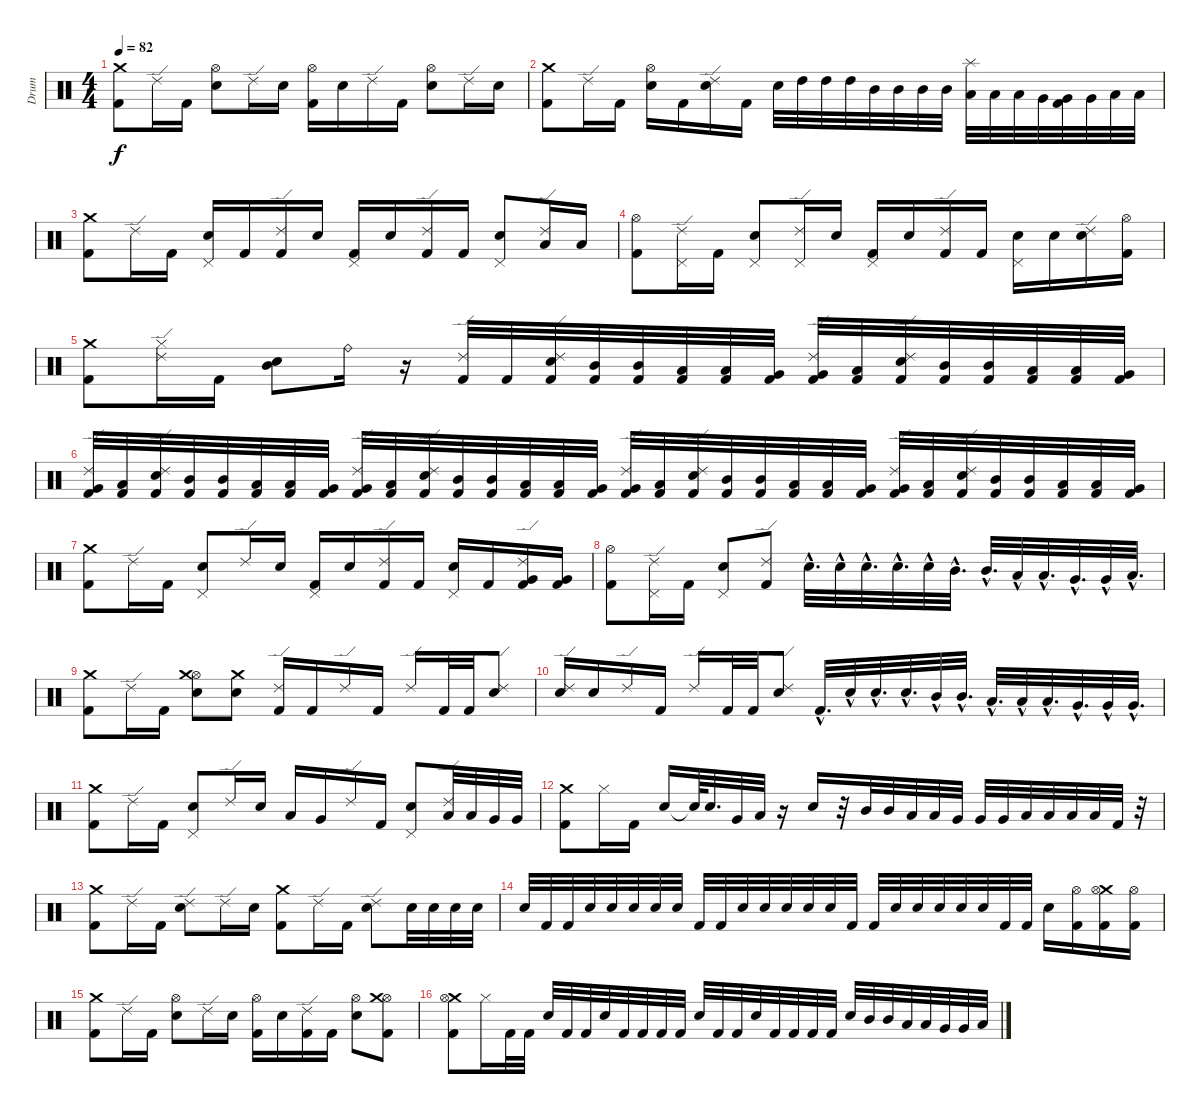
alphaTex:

\track ("Drum" "Drum") {instrument percussion}
\staff {score}
\articulation defaults
\ts (4 4)
\tempo 82
\clef neutral
\ks c
("Crash medium (hit)" "Kick (hit) 2").8{dy f} "Ride (edge) 2".16 "Kick (hit) 2".16 ("Hi-Hat (open)" "Electric Snare (hit)").8 "Ride (edge) 2".16 "Electric Snare (hit)".16 ("Hi-Hat (open)" "Kick (hit) 2").16 "Electric Snare (hit)".16 "Ride (edge) 2".16 "Kick (hit) 2".16 ("Hi-Hat (open)" "Electric Snare (hit)").8 "Ride (edge) 2".16 "Electric Snare (hit)".16 |
("Crash medium (hit)" "Kick (hit) 2").8 "Ride (edge) 2".16 "Kick (hit) 2".16 ("Hi-Hat (open)" "Electric Snare (hit)").16 "Kick (hit) 2".16 ("Ride (edge) 2" "Electric Snare (hit)").16 "Kick (hit) 2".16 "Electric Snare (hit)".32 "High Tom (hit)".32 "High Tom (hit)".32 "High Tom (hit)".32 "Mid Tom (hit)".32 "Mid Tom (hit)".32 "Mid Tom (hit)".32 "Mid Tom (hit)".32 ("Splash (hit)" "Low Tom (hit)").32 "Low Tom (hit)".32 "Low Tom (hit)".32 "Very Low Tom (hit)".32 ("Kick (hit) 2" "Very Low Tom (hit)").32 "Very Low Tom (hit)".32 "Low Floor Tom (hit)".32 "Low Floor Tom (hit)".32 |
("Crash medium (hit)" "Kick (hit) 2").8 "Ride (edge) 2".16 "Kick (hit) 2".16 ("Pedal Hi-Hat (hit)" "Electric Snare (hit)").16 "Kick (hit) 2".16 ("Ride (edge) 2" "Kick (hit) 2").16 "Electric Snare (hit)".16 ("Pedal Hi-Hat (hit)" "Kick (hit) 2").16 "Electric Snare (hit)".16 ("Ride (edge) 2" "Kick (hit) 2").16 "Kick (hit) 2".16 ("Pedal Hi-Hat (hit)" "Electric Snare (hit)").8 ("Ride (edge) 2" "Low Tom (hit)").16 "Low Tom (hit)".16 |
("Hi-Hat (open)" "Kick (hit) 2").8 ("Ride (edge) 2" "Pedal Hi-Hat (hit)").16 "Kick (hit) 2".16 ("Pedal Hi-Hat (hit)" "Electric Snare (hit)").8 ("Ride (edge) 2" "Pedal Hi-Hat (hit)").16 "Electric Snare (hit)".16 ("Pedal Hi-Hat (hit)" "Kick (hit) 2").16 "Electric Snare (hit)".16 ("Ride (edge) 2" "Kick (hit) 2").16 "Kick (hit) 2".16 ("Pedal Hi-Hat (hit)" "Electric Snare (hit)").16 "Electric Snare (hit)".16 ("Ride (edge) 2" "Electric Snare (hit)").16 ("Hi-Hat (open)" "Kick (hit) 2").16 |
("Crash medium (hit)" "Kick (hit) 2").8 ("Ride (edge) 2" "Hi-Hat (closed)").16 "Kick (hit) 2".16 ("Mid Tom (hit)" "Electric Snare (hit)").8 "Ride (bell)".16 r.16 ("Ride (edge) 2" "Kick (hit) 2").32 "Kick (hit) 2".32 ("Electric Snare (hit)" "Ride (edge) 2" "Kick (hit) 2").32 ("Mid Tom (hit)" "Kick (hit) 2").32 ("Mid Tom (hit)" "Kick (hit) 2").32 ("Low Tom (hit)" "Kick (hit) 2").32 ("Low Tom (hit)" "Kick (hit) 2").32 ("Very Low Tom (hit)" "Kick (hit) 2").32 ("Ride (edge) 2" "Very Low Tom (hit)" "Kick (hit) 2").32 ("Low Floor Tom (hit)" "Kick (hit) 2").32 ("Electric Snare (hit)" "Ride (edge) 2" "Kick (hit) 2").32 ("Mid Tom (hit)" "Kick (hit) 2").32 ("Mid Tom (hit)" "Kick (hit) 2").32 ("Low Tom (hit)" "Kick (hit) 2").32 ("Low Tom (hit)" "Kick (hit) 2").32 ("Very Low Tom (hit)" "Kick (hit) 2").32 |
("Ride (edge) 2" "Very Low Tom (hit)" "Kick (hit) 2").32 ("Low Floor Tom (hit)" "Kick (hit) 2").32 ("Electric Snare (hit)" "Ride (edge) 2" "Kick (hit) 2").32 ("Mid Tom (hit)" "Kick (hit) 2").32 ("Mid Tom (hit)" "Kick (hit) 2").32 ("Low Tom (hit)" "Kick (hit) 2").32 ("Low Tom (hit)" "Kick (hit) 2").32 ("Very Low Tom (hit)" "Kick (hit) 2").32 ("Ride (edge) 2" "Very Low Tom (hit)" "Kick (hit) 2").32 ("Low Floor Tom (hit)" "Kick (hit) 2").32 ("Electric Snare (hit)" "Ride (edge) 2" "Kick (hit) 2").32 ("Mid Tom (hit)" "Kick (hit) 2").32 ("Mid Tom (hit)" "Kick (hit) 2").32 ("Low Tom (hit)" "Kick (hit) 2").32 ("Low Tom (hit)" "Kick (hit) 2").32 ("Very Low Tom (hit)" "Kick (hit) 2").32 ("Ride (edge) 2" "Very Low Tom (hit)" "Kick (hit) 2").32 ("Low Floor Tom (hit)" "Kick (hit) 2").32 ("Electric Snare (hit)" "Ride (edge) 2" "Kick (hit) 2").32 ("Mid Tom (hit)" "Kick (hit) 2").32 ("Mid Tom (hit)" "Kick (hit) 2").32 ("Low Tom (hit)" "Kick (hit) 2").32 ("Low Tom (hit)" "Kick (hit) 2").32 ("Very Low Tom (hit)" "Kick (hit) 2").32 ("Ride (edge) 2" "Very Low Tom (hit)" "Kick (hit) 2").32 ("Low Floor Tom (hit)" "Kick (hit) 2").32 ("Electric Snare (hit)" "Ride (edge) 2" "Kick (hit) 2").32 ("Mid Tom (hit)" "Kick (hit) 2").32 ("Mid Tom (hit)" "Kick (hit) 2").32 ("Low Tom (hit)" "Kick (hit) 2").32 ("Low Tom (hit)" "Kick (hit) 2").32 ("Very Low Tom (hit)" "Kick (hit) 2").32 |
("Crash medium (hit)" "Kick (hit) 2").8 "Ride (edge) 2".16 "Kick (hit) 2".16 ("Pedal Hi-Hat (hit)" "Electric Snare (hit)").8 "Ride (edge) 2".16 "Electric Snare (hit)".16 ("Pedal Hi-Hat (hit)" "Kick (hit) 2").16 "Electric Snare (hit)".16 ("Ride (edge) 2" "Kick (hit) 2").16 "Kick (hit) 2".16 ("Pedal Hi-Hat (hit)" "Electric Snare (hit)").16 "Kick (hit) 2".16 ("Very Low Tom (hit)" "Kick (hit) 2" "Ride (edge) 2").16 ("Very Low Tom (hit)" "Kick (hit) 2").16 |
("Hi-Hat (open)" "Kick (hit) 2").8 ("Ride (edge) 2" "Pedal Hi-Hat (hit)").16 "Kick (hit) 2".16 ("Pedal Hi-Hat (hit)" "Electric Snare (hit)").8 ("Kick (hit) 2" "Ride (edge) 2").8 "Electric Snare (hit)"{hac}.32{d} "Electric Snare (hit)"{hac}.32 "Electric Snare (hit)"{hac}.32{d} "Electric Snare (hit)"{hac}.32{d} "Electric Snare (hit)"{hac}.32 "Mid Tom (hit)"{hac}.32{d} "Mid Tom (hit)"{hac}.32{d} "Low Tom (hit)"{hac}.32 "Low Tom (hit)"{hac}.32{d} "Very Low Tom (hit)"{hac}.32{d} "Very Low Tom (hit)"{hac}.32 "Low Floor Tom (hit)"{hac}.32{d} |
("Crash medium (hit)" "Kick (hit) 2").8 "Ride (edge) 2".16 "Kick (hit) 2".16 ("Hi-Hat (open)" "Crash medium (hit)" "Electric Snare (hit)").8 ("Crash medium (hit)" "Electric Snare (hit)").8 ("Ride (edge) 2" "Kick (hit) 2").16 "Kick (hit) 2".16 "Ride (edge) 2".16 "Kick (hit) 2".16 "Ride (edge) 2".16 "Kick (hit) 2".32 "Kick (hit) 2".32 ("Ride (edge) 2" "Electric Snare (hit)").8 |
("Ride (edge) 2" "Electric Snare (hit)").16 "Electric Snare (hit)".16 "Ride (edge) 2".16 "Kick (hit) 2".16 "Ride (edge) 2".16 "Kick (hit) 2".32 "Kick (hit) 2".32 ("Ride (edge) 2" "Electric Snare (hit)").8 "Kick (hit) 2"{hac}.32{d} "Electric Snare (hit)"{hac}.32 "Electric Snare (hit)"{hac}.32{d} "Electric Snare (hit)"{hac}.32{d} "Mid Tom (hit)"{hac}.32 "Mid Tom (hit)"{hac}.32{d} "Low Tom (hit)"{hac}.32{d} "Low Tom (hit)"{hac}.32 "Low Tom (hit)"{hac}.32{d} "Very Low Tom (hit)"{hac}.32{d} "Very Low Tom (hit)"{hac}.32 "Very Low Tom (hit)"{hac}.32{d} |
("Crash medium (hit)" "Kick (hit) 2").8{volume 11} "Ride (edge) 2".16{volume 10} "Kick (hit) 2".16{volume 10} ("Pedal Hi-Hat (hit)" "Electric Snare (hit)").8{volume 10} "Ride (edge) 2".16{volume 10} "Electric Snare (hit)".16{volume 10} "Low Tom (hit)".16{volume 10} "Very Low Tom (hit)".16 "Ride (edge) 2".16{volume 10} "Kick (hit) 2".16{volume 10} ("Pedal Hi-Hat (hit)" "Electric Snare (hit)").8{volume 10} ("Ride (edge) 2" "Low Tom (hit)").32{volume 9} "Low Tom (hit)".32{volume 9} "Very Low Tom (hit)".32 "Very Low Tom (hit)".32 |
("Crash medium (hit)" "Kick (hit) 2").8{volume 9} "Hi-Hat (closed)".16{volume 9} "Kick (hit) 2".16{volume 9} "Electric Snare (hit)".16{volume 9} "Snare (hit)"{t}.64 "Electric Snare (hit)".32{d volume 9} "Very Low Tom (hit)".32 "Low Floor Tom (hit)".32{volume 8} r.16 "Electric Snare (hit)".16{volume 8} r.32 "Mid Tom (hit)".32{volume 8} "Mid Tom (hit)".32 "Low Tom (hit)".32{volume 8} "Low Tom (hit)".32 "Very Low Tom (hit)".32 "Very Low Tom (hit)".32{volume 8} "Very Low Tom (hit)".32 "Low Floor Tom (hit)".32{volume 8} "Low Floor Tom (hit)".32 "Low Floor Tom (hit)".32 "Low Floor Tom (hit)".32{volume 8} "Kick (hit) 2".32 r.32 |
("Crash medium (hit)" "Kick (hit) 2").8{volume 8} "Ride (edge) 2".16{volume 8} "Kick (hit) 2".16{volume 7} ("Electric Snare (hit)" "Ride (edge) 2").8{volume 7} "Ride (edge) 2".16{volume 7} "Electric Snare (hit)".16{volume 7} ("Crash medium (hit)" "Kick (hit) 2").8{volume 7} "Ride (edge) 2".16{volume 7} "Kick (hit) 2".16{volume 7} ("Electric Snare (hit)" "Ride (edge) 2").8{volume 6} "Electric Snare (hit)".32{volume 6} "Electric Snare (hit)".32{volume 6} "Electric Snare (hit)".32 "Electric Snare (hit)".32{volume 6} |
"Electric Snare (hit)".32 "Kick (hit) 2".32 "Kick (hit) 2".32{volume 6} "Electric Snare (hit)".32 "Electric Snare (hit)".32 "Electric Snare (hit)".32{volume 6} "Electric Snare (hit)".32 "Electric Snare (hit)".32{volume 6} "Kick (hit) 2".32 "Kick (hit) 2".32 "Electric Snare (hit)".32{volume 6} "Electric Snare (hit)".32 "Electric Snare (hit)".32{volume 6} "Electric Snare (hit)".32 "Electric Snare (hit)".32 "Kick (hit) 2".32{volume 5} "Kick (hit) 2".32 "Electric Snare (hit)".32 "Electric Snare (hit)".32{volume 5} "Electric Snare (hit)".32 "Electric Snare (hit)".32{volume 5} "Electric Snare (hit)".32 "Kick (hit) 2".32 "Kick (hit) 2".32{volume 5} "Electric Snare (hit)".16 ("Hi-Hat (open)" "Kick (hit) 2").16{volume 5} ("Crash medium (hit)" "Hi-Hat (open)" "Kick (hit) 2").16{volume 5} ("Hi-Hat (open)" "Kick (hit) 2").16 |
("Crash medium (hit)" "Kick (hit) 2").8{volume 5} "Ride (edge) 2".16{volume 4} "Kick (hit) 2".16 ("Hi-Hat (open)" "Electric Snare (hit)").8{volume 4} "Ride (edge) 2".16{volume 4} "Electric Snare (hit)".16 ("Hi-Hat (open)" "Kick (hit) 2").16{volume 4} "Electric Snare (hit)".16{volume 4} ("Ride (edge) 2" "Kick (hit) 2").16{volume 4} "Kick (hit) 2".16 ("Hi-Hat (open)" "Electric Snare (hit)").8{volume 4} ("Hi-Hat (open)" "Kick (hit) 2" "Crash medium (hit)").8{volume 3} |
("Crash medium (hit)" "Hi-Hat (open)" "Kick (hit) 2").8{volume 3} "Hi-Hat (closed)".16{volume 3} "Kick (hit) 2".32{volume 3} "Kick (hit) 2".32 "Electric Snare (hit)".32 "Kick (hit) 2".32{volume 3} "Kick (hit) 2".32 "Electric Snare (hit)".32 "Kick (hit) 2".32{volume 2} "Kick (hit) 2".32 "Kick (hit) 2".32{volume 2} "Kick (hit) 2".32 "Electric Snare (hit)".32 "Kick (hit) 2".32{volume 2} "Kick (hit) 2".32 "Electric Snare (hit)".32 "Kick (hit) 2".32{volume 2} "Kick (hit) 2".32 "Kick (hit) 2".32{volume 2} "Kick (hit) 2".32 "Electric Snare (hit)".32 "Mid Tom (hit)".32{volume 2} "Mid Tom (hit)".32 "Low Tom (hit)".32{volume 2} "Low Tom (hit)".32 "Very Low Tom (hit)".32 "Very Low Tom (hit)".32{volume 2} "Low Floor Tom (hit)".32
